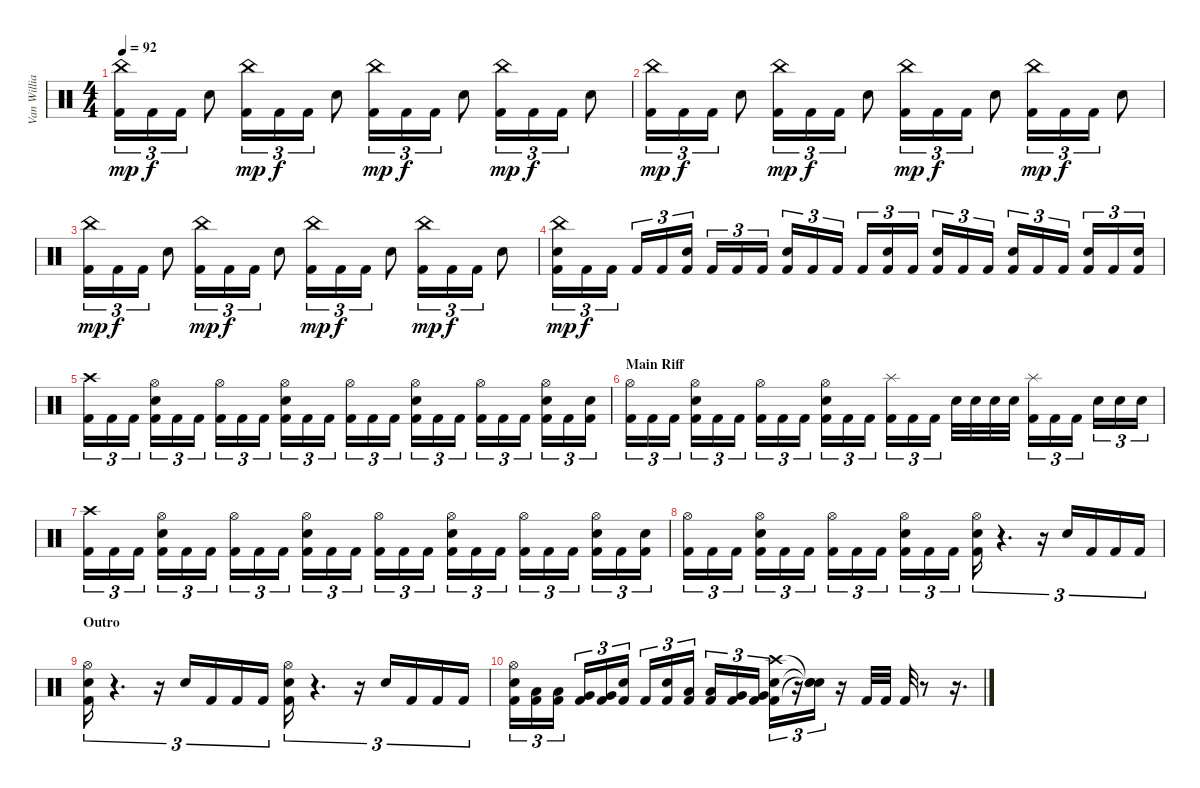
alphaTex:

\track ("Van Williams" "Van Willia") {instrument percussion}
\staff {score}
\articulation defaults
\ts (4 4)
\tempo 92
\clef neutral
\ks c
("China (hit)" "Kick (hit) 2").16{tu (3 2) dy mp} "Kick (hit) 2".16{tu (3 2) dy f} "Kick (hit) 2".16{tu (3 2)} "Electric Snare (hit)".8 ("China (hit)" "Kick (hit) 2").16{tu (3 2) dy mp} "Kick (hit) 2".16{tu (3 2) dy f} "Kick (hit) 2".16{tu (3 2)} "Electric Snare (hit)".8 ("China (hit)" "Kick (hit) 2").16{tu (3 2) dy mp} "Kick (hit) 2".16{tu (3 2) dy f} "Kick (hit) 2".16{tu (3 2)} "Electric Snare (hit)".8 ("China (hit)" "Kick (hit) 2").16{tu (3 2) dy mp} "Kick (hit) 2".16{tu (3 2) dy f} "Kick (hit) 2".16{tu (3 2)} "Electric Snare (hit)".8 |
("China (hit)" "Kick (hit) 2").16{tu (3 2) dy mp} "Kick (hit) 2".16{tu (3 2) dy f} "Kick (hit) 2".16{tu (3 2)} "Electric Snare (hit)".8 ("China (hit)" "Kick (hit) 2").16{tu (3 2) dy mp} "Kick (hit) 2".16{tu (3 2) dy f} "Kick (hit) 2".16{tu (3 2)} "Electric Snare (hit)".8 ("China (hit)" "Kick (hit) 2").16{tu (3 2) dy mp} "Kick (hit) 2".16{tu (3 2) dy f} "Kick (hit) 2".16{tu (3 2)} "Electric Snare (hit)".8 ("China (hit)" "Kick (hit) 2").16{tu (3 2) dy mp} "Kick (hit) 2".16{tu (3 2) dy f} "Kick (hit) 2".16{tu (3 2)} "Electric Snare (hit)".8 |
("China (hit)" "Kick (hit) 2").16{tu (3 2) dy mp} "Kick (hit) 2".16{tu (3 2) dy f} "Kick (hit) 2".16{tu (3 2)} "Electric Snare (hit)".8 ("China (hit)" "Kick (hit) 2").16{tu (3 2) dy mp} "Kick (hit) 2".16{tu (3 2) dy f} "Kick (hit) 2".16{tu (3 2)} "Electric Snare (hit)".8 ("China (hit)" "Kick (hit) 2").16{tu (3 2) dy mp} "Kick (hit) 2".16{tu (3 2) dy f} "Kick (hit) 2".16{tu (3 2)} "Electric Snare (hit)".8 ("China (hit)" "Kick (hit) 2").16{tu (3 2) dy mp} "Kick (hit) 2".16{tu (3 2) dy f} "Kick (hit) 2".16{tu (3 2)} "Electric Snare (hit)".8 |
("China (hit)" "Electric Snare (hit)" "Kick (hit) 2").16{tu (3 2) dy mp} "Kick (hit) 2".16{tu (3 2) dy f} "Kick (hit) 2".16{tu (3 2)} "Kick (hit) 2".16{tu (3 2)} "Kick (hit) 2".16{tu (3 2)} ("Electric Snare (hit)" "Kick (hit) 2").16{tu (3 2)} "Kick (hit) 2".16{tu (3 2)} "Kick (hit) 2".16{tu (3 2)} "Kick (hit) 2".16{tu (3 2)} ("Electric Snare (hit)" "Kick (hit) 2").16{tu (3 2)} "Kick (hit) 2".16{tu (3 2)} "Kick (hit) 2".16{tu (3 2)} "Kick (hit) 2".16{tu (3 2)} ("Electric Snare (hit)" "Kick (hit) 2").16{tu (3 2)} "Kick (hit) 2".16{tu (3 2)} ("Electric Snare (hit)" "Kick (hit) 2").16{tu (3 2)} "Kick (hit) 2".16{tu (3 2)} "Kick (hit) 2".16{tu (3 2)} ("Electric Snare (hit)" "Kick (hit) 2").16{tu (3 2)} "Kick (hit) 2".16{tu (3 2)} "Kick (hit) 2".16{tu (3 2)} ("Electric Snare (hit)" "Kick (hit) 2").16{tu (3 2)} "Kick (hit) 2".16{tu (3 2)} ("Electric Snare (hit)" "Kick (hit) 2").16{tu (3 2)} |
("Crash high (hit)" "Kick (hit) 2").16{tu (3 2)} "Kick (hit) 2".16{tu (3 2)} "Kick (hit) 2".16{tu (3 2)} ("Hi-Hat (open)" "Electric Snare (hit)" "Kick (hit) 2").16{tu (3 2)} "Kick (hit) 2".16{tu (3 2)} "Kick (hit) 2".16{tu (3 2)} ("Hi-Hat (open)" "Kick (hit) 2").16{tu (3 2)} "Kick (hit) 2".16{tu (3 2)} "Kick (hit) 2".16{tu (3 2)} ("Hi-Hat (open)" "Electric Snare (hit)" "Kick (hit) 2").16{tu (3 2)} "Kick (hit) 2".16{tu (3 2)} "Kick (hit) 2".16{tu (3 2)} ("Hi-Hat (open)" "Kick (hit) 2").16{tu (3 2)} "Kick (hit) 2".16{tu (3 2)} "Kick (hit) 2".16{tu (3 2)} ("Hi-Hat (open)" "Electric Snare (hit)" "Kick (hit) 2").16{tu (3 2)} "Kick (hit) 2".16{tu (3 2)} "Kick (hit) 2".16{tu (3 2)} ("Hi-Hat (open)" "Kick (hit) 2").16{tu (3 2)} "Kick (hit) 2".16{tu (3 2)} "Kick (hit) 2".16{tu (3 2)} ("Hi-Hat (open)" "Electric Snare (hit)" "Kick (hit) 2").16{tu (3 2)} "Kick (hit) 2".16{tu (3 2)} ("Electric Snare (hit)" "Kick (hit) 2").16{tu (3 2)} |
\section ("" "Main Riff")
("Hi-Hat (open)" "Kick (hit) 2").16{tu (3 2)} "Kick (hit) 2".16{tu (3 2)} "Kick (hit) 2".16{tu (3 2)} ("Hi-Hat (open)" "Electric Snare (hit)" "Kick (hit) 2").16{tu (3 2)} "Kick (hit) 2".16{tu (3 2)} "Kick (hit) 2".16{tu (3 2)} ("Hi-Hat (open)" "Kick (hit) 2").16{tu (3 2)} "Kick (hit) 2".16{tu (3 2)} "Kick (hit) 2".16{tu (3 2)} ("Hi-Hat (open)" "Electric Snare (hit)" "Kick (hit) 2").16{tu (3 2)} "Kick (hit) 2".16{tu (3 2)} "Kick (hit) 2".16{tu (3 2)} ("Splash (hit)" "Kick (hit) 2").16{tu (3 2)} "Kick (hit) 2".16{tu (3 2)} "Kick (hit) 2".16{tu (3 2)} "Electric Snare (hit)".32 "Electric Snare (hit)".32 "Electric Snare (hit)".32 "Electric Snare (hit)".32 ("Splash (hit)" "Kick (hit) 2").16{tu (3 2)} "Kick (hit) 2".16{tu (3 2)} "Kick (hit) 2".16{tu (3 2)} "Electric Snare (hit)".16{tu (3 2)} "Electric Snare (hit)".16{tu (3 2)} "Electric Snare (hit)".16{tu (3 2)} |
("Crash high (hit)" "Kick (hit) 2").16{tu (3 2)} "Kick (hit) 2".16{tu (3 2)} "Kick (hit) 2".16{tu (3 2)} ("Hi-Hat (open)" "Electric Snare (hit)" "Kick (hit) 2").16{tu (3 2)} "Kick (hit) 2".16{tu (3 2)} "Kick (hit) 2".16{tu (3 2)} ("Hi-Hat (open)" "Kick (hit) 2").16{tu (3 2)} "Kick (hit) 2".16{tu (3 2)} "Kick (hit) 2".16{tu (3 2)} ("Hi-Hat (open)" "Electric Snare (hit)" "Kick (hit) 2").16{tu (3 2)} "Kick (hit) 2".16{tu (3 2)} "Kick (hit) 2".16{tu (3 2)} ("Hi-Hat (open)" "Kick (hit) 2").16{tu (3 2)} "Kick (hit) 2".16{tu (3 2)} "Kick (hit) 2".16{tu (3 2)} ("Hi-Hat (open)" "Electric Snare (hit)" "Kick (hit) 2").16{tu (3 2)} "Kick (hit) 2".16{tu (3 2)} "Kick (hit) 2".16{tu (3 2)} ("Hi-Hat (open)" "Kick (hit) 2").16{tu (3 2)} "Kick (hit) 2".16{tu (3 2)} "Kick (hit) 2".16{tu (3 2)} ("Hi-Hat (open)" "Electric Snare (hit)" "Kick (hit) 2").16{tu (3 2)} "Kick (hit) 2".16{tu (3 2)} ("Electric Snare (hit)" "Kick (hit) 2").16{tu (3 2)} |
("Hi-Hat (open)" "Kick (hit) 2").16{tu (3 2)} "Kick (hit) 2".16{tu (3 2)} "Kick (hit) 2".16{tu (3 2)} ("Hi-Hat (open)" "Electric Snare (hit)" "Kick (hit) 2").16{tu (3 2)} "Kick (hit) 2".16{tu (3 2)} "Kick (hit) 2".16{tu (3 2)} ("Hi-Hat (open)" "Kick (hit) 2").16{tu (3 2)} "Kick (hit) 2".16{tu (3 2)} "Kick (hit) 2".16{tu (3 2)} ("Hi-Hat (open)" "Electric Snare (hit)" "Kick (hit) 2").16{tu (3 2)} "Kick (hit) 2".16{tu (3 2)} "Kick (hit) 2".16{tu (3 2)} ("Hi-Hat (open)" "Electric Snare (hit)" "Kick (hit) 2").16{tu (3 2)} r.4{d tu (3 2)} r.16{tu (3 2)} "Electric Snare (hit)".16{tu (3 2)} "Kick (hit) 2".16{tu (3 2)} "Kick (hit) 2".16{tu (3 2)} "Kick (hit) 2".16{tu (3 2)} |
\section ("" "Outro ")
("Hi-Hat (open)" "Electric Snare (hit)" "Kick (hit) 2").16{tu (3 2)} r.4{d tu (3 2)} r.16{tu (3 2)} "Electric Snare (hit)".16{tu (3 2)} "Kick (hit) 2".16{tu (3 2)} "Kick (hit) 2".16{tu (3 2)} "Kick (hit) 2".16{tu (3 2)} ("Hi-Hat (open)" "Electric Snare (hit)" "Kick (hit) 2").16{tu (3 2)} r.4{d tu (3 2)} r.16{tu (3 2)} "Electric Snare (hit)".16{tu (3 2)} "Kick (hit) 2".16{tu (3 2)} "Kick (hit) 2".16{tu (3 2)} "Kick (hit) 2".16{tu (3 2)} |
("Hi-Hat (open)" "Electric Snare (hit)" "Kick (hit) 2").16{tu (3 2)} ("Low Tom (hit)" "Kick (hit) 2").16{tu (3 2)} ("Low Tom (hit)" "Kick (hit) 2").16{tu (3 2)} ("Very Low Tom (hit)" "Kick (hit) 2").16{tu (3 2)} ("Very Low Tom (hit)" "Kick (hit) 2").16{tu (3 2)} ("Electric Snare (hit)" "Kick (hit) 2").16{tu (3 2)} "Kick (hit) 2".16{tu (3 2)} ("Electric Snare (hit)" "Kick (hit) 2").16{tu (3 2)} ("Low Tom (hit)" "Kick (hit) 2").16{tu (3 2)} ("Low Tom (hit)" "Kick (hit) 2").16{tu (3 2)} ("Very Low Tom (hit)" "Kick (hit) 2").16{tu (3 2)} ("Very Low Tom (hit)" "Kick (hit) 2").16{tu (3 2)} ("Crash high (hit)" "Electric Snare (hit)" "Kick (hit) 2").16{tu (3 2)} r.16{tu (3 2)} ("Snare (hit)"{t} "Snare (hit)"{t} "Snare (hit)"{t}).16{tu (3 2)} r.16 "Kick (hit) 2".32 "Kick (hit) 2".32 "Kick (hit) 2".32 r.8 r.16{d}
